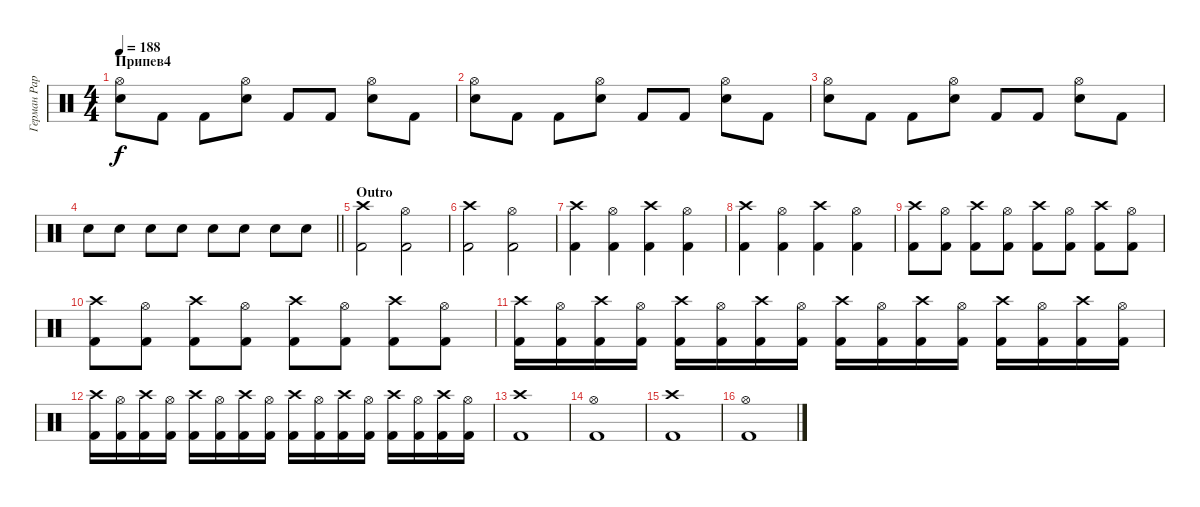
\track ("Герман Раребелл, ударные" "Герман Рар") {instrument percussion}
\staff {score}
\articulation defaults
\ts (4 4)
\section ("" "Припев4")
\tempo 188
\clef neutral
\ks c
("Snare (hit) 2" "Hi-Hat (open)").8{dy f} "Kick (hit) 2".8 "Kick (hit) 2".8 ("Snare (hit) 2" "Hi-Hat (open)").8 "Kick (hit) 2".8 "Kick (hit) 2".8 ("Snare (hit) 2" "Hi-Hat (open)").8 "Kick (hit) 2".8 |
("Snare (hit) 2" "Hi-Hat (open)").8 "Kick (hit) 2".8 "Kick (hit) 2".8 ("Snare (hit) 2" "Hi-Hat (open)").8 "Kick (hit) 2".8 "Kick (hit) 2".8 ("Snare (hit) 2" "Hi-Hat (open)").8 "Kick (hit) 2".8 |
("Snare (hit) 2" "Hi-Hat (open)").8 "Kick (hit) 2".8 "Kick (hit) 2".8 ("Snare (hit) 2" "Hi-Hat (open)").8 "Kick (hit) 2".8 "Kick (hit) 2".8 ("Snare (hit) 2" "Hi-Hat (open)").8 "Kick (hit) 2".8 |
\barLineRight lightlight "Snare (hit) 2".8 "Snare (hit) 2".8 "Snare (hit) 2".8 "Snare (hit) 2".8 "Snare (hit) 2".8 "Snare (hit) 2".8 "Snare (hit) 2".8 "Snare (hit) 2".8
|
\section ("" "Outro")
("Kick (hit) 2" "Crash high (hit)").2 ("Kick (hit) 2" "Hi-Hat (open)").2 |
("Kick (hit) 2" "Crash high (hit)").2 ("Kick (hit) 2" "Hi-Hat (open)").2 |
("Kick (hit) 2" "Crash high (hit)").4 ("Kick (hit) 2" "Hi-Hat (open)").4 ("Kick (hit) 2" "Crash high (hit)").4 ("Kick (hit) 2" "Hi-Hat (open)").4 |
("Kick (hit) 2" "Crash high (hit)").4 ("Kick (hit) 2" "Hi-Hat (open)").4 ("Kick (hit) 2" "Crash high (hit)").4 ("Kick (hit) 2" "Hi-Hat (open)").4 |
("Kick (hit) 2" "Crash high (hit)").8 ("Kick (hit) 2" "Hi-Hat (open)").8 ("Kick (hit) 2" "Crash high (hit)").8 ("Kick (hit) 2" "Hi-Hat (open)").8 ("Kick (hit) 2" "Crash high (hit)").8 ("Kick (hit) 2" "Hi-Hat (open)").8 ("Kick (hit) 2" "Crash high (hit)").8 ("Kick (hit) 2" "Hi-Hat (open)").8 |
("Kick (hit) 2" "Crash high (hit)").8 ("Kick (hit) 2" "Hi-Hat (open)").8 ("Kick (hit) 2" "Crash high (hit)").8 ("Kick (hit) 2" "Hi-Hat (open)").8 ("Kick (hit) 2" "Crash high (hit)").8 ("Kick (hit) 2" "Hi-Hat (open)").8 ("Kick (hit) 2" "Crash high (hit)").8 ("Kick (hit) 2" "Hi-Hat (open)").8 |
("Kick (hit) 2" "Crash high (hit)").16 ("Kick (hit) 2" "Hi-Hat (open)").16 ("Kick (hit) 2" "Crash high (hit)").16 ("Kick (hit) 2" "Hi-Hat (open)").16 ("Kick (hit) 2" "Crash high (hit)").16 ("Kick (hit) 2" "Hi-Hat (open)").16 ("Kick (hit) 2" "Crash high (hit)").16 ("Kick (hit) 2" "Hi-Hat (open)").16 ("Kick (hit) 2" "Crash high (hit)").16 ("Kick (hit) 2" "Hi-Hat (open)").16 ("Kick (hit) 2" "Crash high (hit)").16 ("Kick (hit) 2" "Hi-Hat (open)").16 ("Kick (hit) 2" "Crash high (hit)").16 ("Kick (hit) 2" "Hi-Hat (open)").16 ("Kick (hit) 2" "Crash high (hit)").16 ("Kick (hit) 2" "Hi-Hat (open)").16 |
("Kick (hit) 2" "Crash high (hit)").16 ("Kick (hit) 2" "Hi-Hat (open)").16 ("Kick (hit) 2" "Crash high (hit)").16 ("Kick (hit) 2" "Hi-Hat (open)").16 ("Kick (hit) 2" "Crash high (hit)").16 ("Kick (hit) 2" "Hi-Hat (open)").16 ("Kick (hit) 2" "Crash high (hit)").16 ("Kick (hit) 2" "Hi-Hat (open)").16 ("Kick (hit) 2" "Crash high (hit)").16 ("Kick (hit) 2" "Hi-Hat (open)").16 ("Kick (hit) 2" "Crash high (hit)").16 ("Kick (hit) 2" "Hi-Hat (open)").16 ("Kick (hit) 2" "Crash high (hit)").16 ("Kick (hit) 2" "Hi-Hat (open)").16 ("Kick (hit) 2" "Crash high (hit)").16 ("Kick (hit) 2" "Hi-Hat (open)").16 |
("Kick (hit) 2" "Crash high (hit)").1 |
("Kick (hit) 2" "Hi-Hat (open)").1 |
("Kick (hit) 2" "Crash high (hit)").1 |
("Kick (hit) 2" "Hi-Hat (open)").1
